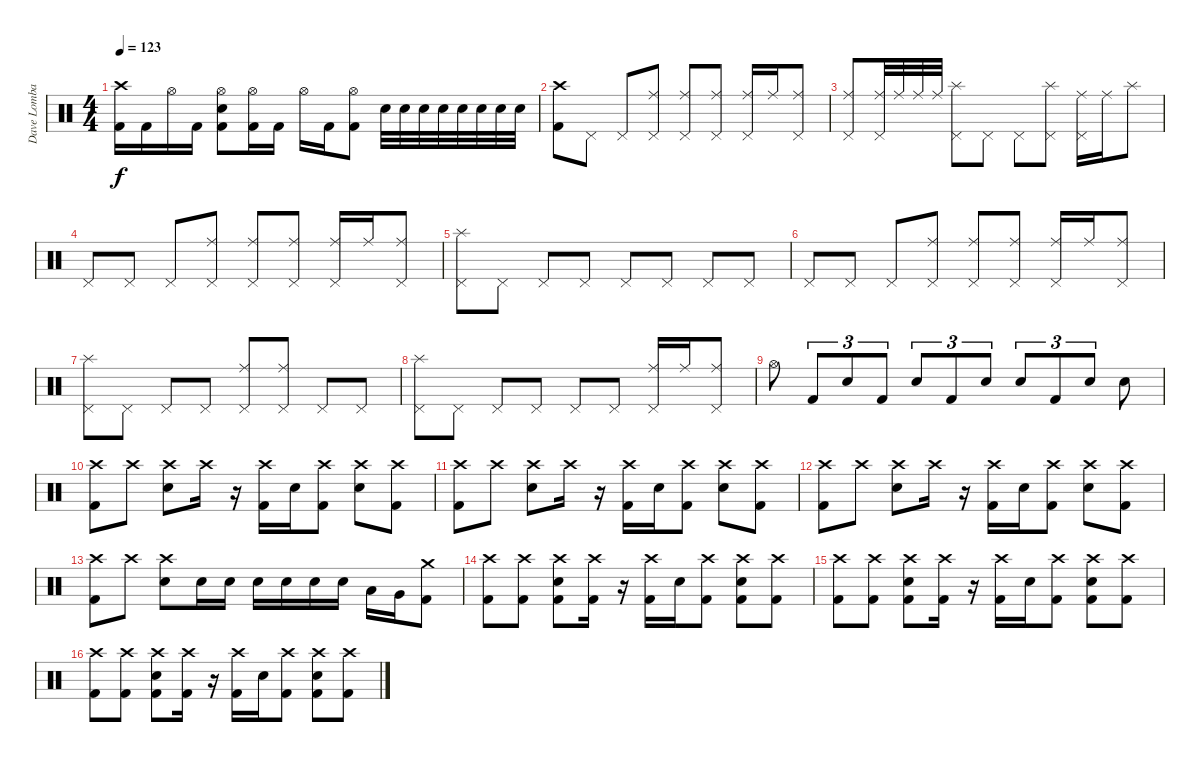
\track ("Dave Lombardo" "Dave Lomba") {instrument percussion}
\staff {score}
\articulation defaults
\ts (4 4)
\tempo 123
\clef neutral
\ks c
("Crash high (hit)" "Kick (hit) 2").16{dy f} "Kick (hit) 2".16 "Hi-Hat (open)".16 "Kick (hit) 2".16 ("Hi-Hat (open)" "Electric Snare (hit)" "Kick (hit) 2").8 ("Hi-Hat (open)" "Kick (hit) 2").16 "Kick (hit) 2".16 "Hi-Hat (open)".16 "Kick (hit) 2".16 ("Hi-Hat (open)" "Kick (hit) 2").8 "Electric Snare (hit)".32 "Electric Snare (hit)".32 "Electric Snare (hit)".32 "Electric Snare (hit)".32 "Electric Snare (hit)".32 "Electric Snare (hit)".32 "Electric Snare (hit)".32 "Electric Snare (hit)".32 |
("Crash high (hit)" "Kick (hit) 2").8 "Pedal Hi-Hat (hit)".8 "Pedal Hi-Hat (hit)".8 ("Ride (middle)" "Pedal Hi-Hat (hit)").8 ("Ride (middle)" "Pedal Hi-Hat (hit)").8 ("Ride (middle)" "Pedal Hi-Hat (hit)").8 ("Ride (middle)" "Pedal Hi-Hat (hit)").16 "Ride (middle)".16 ("Ride (middle)" "Pedal Hi-Hat (hit)").8 |
("Ride (middle)" "Pedal Hi-Hat (hit)").8 ("Ride (middle)" "Pedal Hi-Hat (hit)").32 "Ride (middle)".32 "Ride (middle)".32 "Ride (middle)".32 ("Splash (hit)" "Pedal Hi-Hat (hit)").8 "Pedal Hi-Hat (hit)".8 "Pedal Hi-Hat (hit)".8 ("Splash (hit)" "Pedal Hi-Hat (hit)").8 ("Ride (middle)" "Pedal Hi-Hat (hit)").16 "Ride (middle)".16 "Splash (hit)".8 |
"Pedal Hi-Hat (hit)".8 "Pedal Hi-Hat (hit)".8 "Pedal Hi-Hat (hit)".8 ("Ride (middle)" "Pedal Hi-Hat (hit)").8 ("Ride (middle)" "Pedal Hi-Hat (hit)").8 ("Ride (middle)" "Pedal Hi-Hat (hit)").8 ("Ride (middle)" "Pedal Hi-Hat (hit)").16 "Ride (middle)".16 ("Ride (middle)" "Pedal Hi-Hat (hit)").8 |
("Splash (hit)" "Pedal Hi-Hat (hit)").8 "Pedal Hi-Hat (hit)".8 "Pedal Hi-Hat (hit)".8 "Pedal Hi-Hat (hit)".8 "Pedal Hi-Hat (hit)".8 "Pedal Hi-Hat (hit)".8 "Pedal Hi-Hat (hit)".8 "Pedal Hi-Hat (hit)".8 |
"Pedal Hi-Hat (hit)".8 "Pedal Hi-Hat (hit)".8 "Pedal Hi-Hat (hit)".8 ("Ride (middle)" "Pedal Hi-Hat (hit)").8 ("Ride (middle)" "Pedal Hi-Hat (hit)").8 ("Ride (middle)" "Pedal Hi-Hat (hit)").8 ("Ride (middle)" "Pedal Hi-Hat (hit)").16 "Ride (middle)".16 ("Ride (middle)" "Pedal Hi-Hat (hit)").8 |
("Splash (hit)" "Pedal Hi-Hat (hit)").8 "Pedal Hi-Hat (hit)".8 "Pedal Hi-Hat (hit)".8 "Pedal Hi-Hat (hit)".8 ("Ride (middle)" "Pedal Hi-Hat (hit)").8 ("Ride (middle)" "Pedal Hi-Hat (hit)").8 "Pedal Hi-Hat (hit)".8 "Pedal Hi-Hat (hit)".8 |
("Splash (hit)" "Pedal Hi-Hat (hit)").8 "Pedal Hi-Hat (hit)".8 "Pedal Hi-Hat (hit)".8 "Pedal Hi-Hat (hit)".8 "Pedal Hi-Hat (hit)".8 "Pedal Hi-Hat (hit)".8 ("Ride (middle)" "Pedal Hi-Hat (hit)").16 "Ride (middle)".16 ("Ride (middle)" "Pedal Hi-Hat (hit)").8 |
"Hi-Hat (open)".8 "Kick (hit) 2".8{tu (3 2)} "Electric Snare (hit)".8{tu (3 2)} "Kick (hit) 2".8{tu (3 2)} "Electric Snare (hit)".8{tu (3 2)} "Kick (hit) 2".8{tu (3 2)} "Electric Snare (hit)".8{tu (3 2)} "Electric Snare (hit)".8{tu (3 2)} "Kick (hit) 2".8{tu (3 2)} "Electric Snare (hit)".8{tu (3 2)} "Electric Snare (hit)".8 |
("Crash high (hit)" "Kick (hit) 2").8 "Crash high (hit)".8 ("Crash high (hit)" "Electric Snare (hit)").8 "Crash high (hit)".16 r.16 ("Crash high (hit)" "Kick (hit) 2").16 "Electric Snare (hit)".16 ("Crash high (hit)" "Kick (hit) 2").8 ("Crash high (hit)" "Electric Snare (hit)").8 ("Crash high (hit)" "Kick (hit) 2").8 |
("Crash high (hit)" "Kick (hit) 2").8 "Crash high (hit)".8 ("Crash high (hit)" "Electric Snare (hit)").8 "Crash high (hit)".16 r.16 ("Crash high (hit)" "Kick (hit) 2").16 "Electric Snare (hit)".16 ("Crash high (hit)" "Kick (hit) 2").8 ("Crash high (hit)" "Electric Snare (hit)").8 ("Crash high (hit)" "Kick (hit) 2").8 |
("Crash high (hit)" "Kick (hit) 2").8 "Crash high (hit)".8 ("Crash high (hit)" "Electric Snare (hit)").8 "Crash high (hit)".16 r.16 ("Crash high (hit)" "Kick (hit) 2").16 "Electric Snare (hit)".16 ("Crash high (hit)" "Kick (hit) 2").8 ("Crash high (hit)" "Electric Snare (hit)").8 ("Crash high (hit)" "Kick (hit) 2").8 |
("Crash high (hit)" "Kick (hit) 2").8 "Crash high (hit)".8 ("Crash high (hit)" "Electric Snare (hit)").8 "Electric Snare (hit)".16 "Electric Snare (hit)".16 "Electric Snare (hit)".16 "Electric Snare (hit)".16 "Electric Snare (hit)".16 "Electric Snare (hit)".16 "Low Tom (hit)".16 "Very Low Tom (hit)".16 ("Crash medium (hit)" "Kick (hit) 2").8 |
("Crash high (hit)" "Kick (hit) 2").8 ("Crash high (hit)" "Kick (hit) 2").8 ("Crash high (hit)" "Electric Snare (hit)" "Kick (hit) 2").8 ("Crash high (hit)" "Kick (hit) 2").16 r.16 ("Crash high (hit)" "Kick (hit) 2").16 "Electric Snare (hit)".16 ("Crash high (hit)" "Kick (hit) 2").8 ("Crash high (hit)" "Electric Snare (hit)" "Kick (hit) 2").8 ("Crash high (hit)" "Kick (hit) 2").8 |
("Crash high (hit)" "Kick (hit) 2").8 ("Crash high (hit)" "Kick (hit) 2").8 ("Crash high (hit)" "Electric Snare (hit)" "Kick (hit) 2").8 ("Crash high (hit)" "Kick (hit) 2").16 r.16 ("Crash high (hit)" "Kick (hit) 2").16 "Electric Snare (hit)".16 ("Crash high (hit)" "Kick (hit) 2").8 ("Crash high (hit)" "Electric Snare (hit)" "Kick (hit) 2").8 ("Crash high (hit)" "Kick (hit) 2").8 |
("Crash high (hit)" "Kick (hit) 2").8 ("Crash high (hit)" "Kick (hit) 2").8 ("Crash high (hit)" "Electric Snare (hit)" "Kick (hit) 2").8 ("Crash high (hit)" "Kick (hit) 2").16 r.16 ("Crash high (hit)" "Kick (hit) 2").16 "Electric Snare (hit)".16 ("Crash high (hit)" "Kick (hit) 2").8 ("Crash high (hit)" "Electric Snare (hit)" "Kick (hit) 2").8 ("Crash high (hit)" "Kick (hit) 2").8
